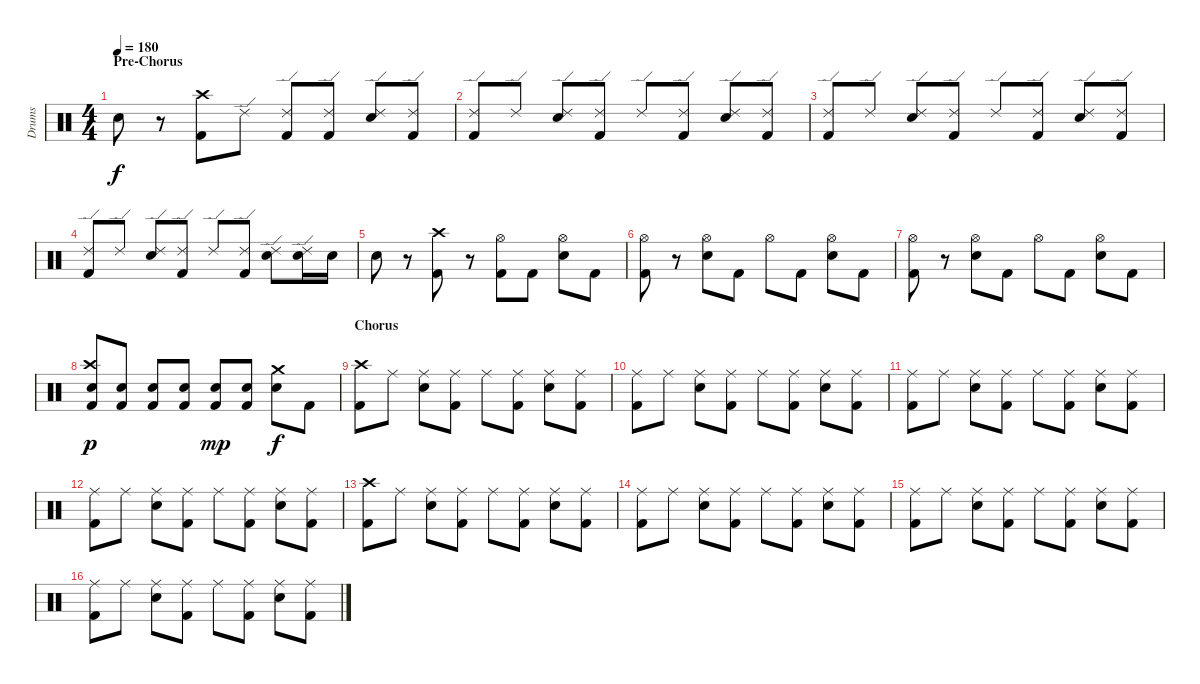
\track ("Drums" "Drums") {instrument percussion}
\staff {score}
\articulation defaults
\ts (4 4)
\section ("" "Pre-Chorus")
\tempo 180
\clef neutral
\ks c "Electric Snare (hit)".8{dy f}
r.8 ("Crash high (hit)" "Kick (hit) 2").8 "Ride (edge) 2".8 ("Ride (edge) 2" "Kick (hit) 2").8 ("Ride (edge) 2" "Kick (hit) 2").8 ("Ride (edge) 2" "Electric Snare (hit)").8 ("Ride (edge) 2" "Kick (hit) 2").8 |
("Ride (edge) 2" "Kick (hit) 2").8 "Ride (edge) 2".8 ("Ride (edge) 2" "Electric Snare (hit)").8 ("Ride (edge) 2" "Kick (hit) 2").8 "Ride (edge) 2".8 ("Ride (edge) 2" "Kick (hit) 2").8 ("Ride (edge) 2" "Electric Snare (hit)").8 ("Ride (edge) 2" "Kick (hit) 2").8 |
("Ride (edge) 2" "Kick (hit) 2").8 "Ride (edge) 2".8 ("Ride (edge) 2" "Electric Snare (hit)").8 ("Ride (edge) 2" "Kick (hit) 2").8 "Ride (edge) 2".8 ("Ride (edge) 2" "Kick (hit) 2").8 ("Ride (edge) 2" "Electric Snare (hit)").8 ("Ride (edge) 2" "Kick (hit) 2").8 |
("Ride (edge) 2" "Kick (hit) 2").8 "Ride (edge) 2".8 ("Ride (edge) 2" "Electric Snare (hit)").8 ("Ride (edge) 2" "Kick (hit) 2").8 "Ride (edge) 2".8 ("Ride (edge) 2" "Kick (hit) 2").8 ("Ride (edge) 2" "Electric Snare (hit)").8 ("Ride (edge) 2" "Electric Snare (hit)").16 "Electric Snare (hit)".16 |
"Electric Snare (hit)".8 r.8 ("Crash high (hit)" "Kick (hit) 2").8 r.8 ("Hi-Hat (open)" "Kick (hit) 2").8 "Kick (hit) 2".8 ("Hi-Hat (open)" "Electric Snare (hit)").8 "Kick (hit) 2".8 |
("Hi-Hat (open)" "Kick (hit) 2").8 r.8 ("Hi-Hat (open)" "Electric Snare (hit)").8 "Kick (hit) 2".8 "Hi-Hat (open)".8 "Kick (hit) 2".8 ("Hi-Hat (open)" "Electric Snare (hit)").8 "Kick (hit) 2".8 |
("Hi-Hat (open)" "Kick (hit) 2").8 r.8 ("Hi-Hat (open)" "Electric Snare (hit)").8 "Kick (hit) 2".8 "Hi-Hat (open)".8 "Kick (hit) 2".8 ("Hi-Hat (open)" "Electric Snare (hit)").8 "Kick (hit) 2".8 |
("Crash high (hit)" "Electric Snare (hit)" "Kick (hit) 2").8{dy p} ("Electric Snare (hit)" "Kick (hit) 2").8 ("Electric Snare (hit)" "Kick (hit) 2").8 ("Electric Snare (hit)" "Kick (hit) 2").8 ("Electric Snare (hit)" "Kick (hit) 2").8{dy mp} ("Electric Snare (hit)" "Kick (hit) 2").8 ("Crash medium (hit)" "Electric Snare (hit)").8{dy f} "Kick (hit) 2".8 |
\section ("" "Chorus")
("Crash high (hit)" "Kick (hit) 2").8 "Ride (middle)".8 ("Ride (middle)" "Electric Snare (hit)").8 ("Ride (middle)" "Kick (hit) 2").8 "Ride (middle)".8 ("Ride (middle)" "Kick (hit) 2").8 ("Ride (middle)" "Electric Snare (hit)").8 ("Ride (middle)" "Kick (hit) 2").8 |
("Ride (middle)" "Kick (hit) 2").8 "Ride (middle)".8 ("Ride (middle)" "Electric Snare (hit)").8 ("Ride (middle)" "Kick (hit) 2").8 "Ride (middle)".8 ("Ride (middle)" "Kick (hit) 2").8 ("Ride (middle)" "Electric Snare (hit)").8 ("Ride (middle)" "Kick (hit) 2").8 |
("Ride (middle)" "Kick (hit) 2").8 "Ride (middle)".8 ("Ride (middle)" "Electric Snare (hit)").8 ("Ride (middle)" "Kick (hit) 2").8 "Ride (middle)".8 ("Ride (middle)" "Kick (hit) 2").8 ("Ride (middle)" "Electric Snare (hit)").8 ("Ride (middle)" "Kick (hit) 2").8 |
("Ride (middle)" "Kick (hit) 2").8 "Ride (middle)".8 ("Ride (middle)" "Electric Snare (hit)").8 ("Ride (middle)" "Kick (hit) 2").8 "Ride (middle)".8 ("Ride (middle)" "Kick (hit) 2").8 ("Ride (middle)" "Electric Snare (hit)").8 ("Ride (middle)" "Kick (hit) 2").8 |
("Crash high (hit)" "Kick (hit) 2").8 "Ride (middle)".8 ("Ride (middle)" "Electric Snare (hit)").8 ("Ride (middle)" "Kick (hit) 2").8 "Ride (middle)".8 ("Ride (middle)" "Kick (hit) 2").8 ("Ride (middle)" "Electric Snare (hit)").8 ("Ride (middle)" "Kick (hit) 2").8 |
("Ride (middle)" "Kick (hit) 2").8 "Ride (middle)".8 ("Ride (middle)" "Electric Snare (hit)").8 ("Ride (middle)" "Kick (hit) 2").8 "Ride (middle)".8 ("Ride (middle)" "Kick (hit) 2").8 ("Ride (middle)" "Electric Snare (hit)").8 ("Ride (middle)" "Kick (hit) 2").8 |
("Ride (middle)" "Kick (hit) 2").8 "Ride (middle)".8 ("Ride (middle)" "Electric Snare (hit)").8 ("Ride (middle)" "Kick (hit) 2").8 "Ride (middle)".8 ("Ride (middle)" "Kick (hit) 2").8 ("Ride (middle)" "Electric Snare (hit)").8 ("Ride (middle)" "Kick (hit) 2").8 |
("Ride (middle)" "Kick (hit) 2").8 "Ride (middle)".8 ("Ride (middle)" "Electric Snare (hit)").8 ("Ride (middle)" "Kick (hit) 2").8 "Ride (middle)".8 ("Ride (middle)" "Kick (hit) 2").8 ("Ride (middle)" "Electric Snare (hit)").8 ("Ride (middle)" "Kick (hit) 2").8
